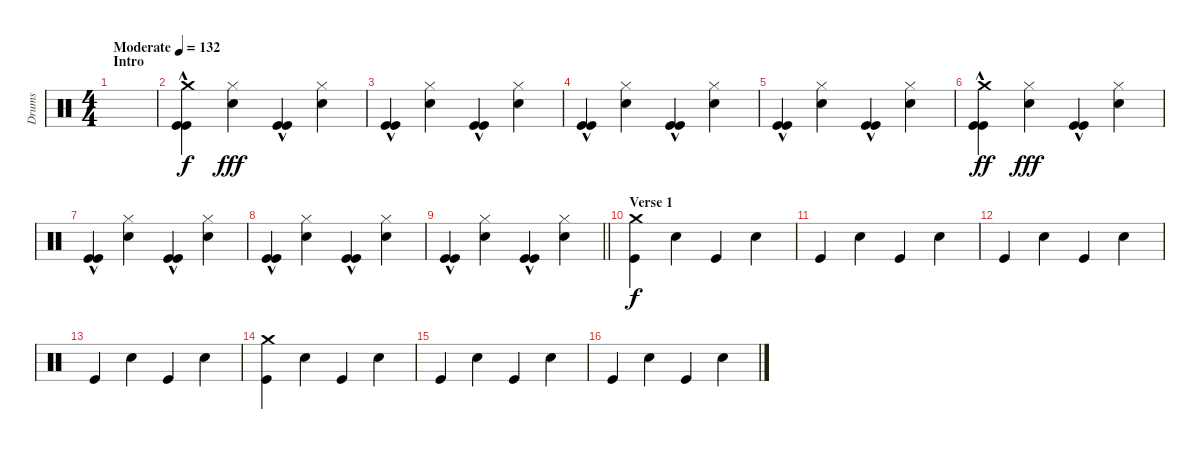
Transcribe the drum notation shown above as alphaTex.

\track ("Drums" "Drums") {instrument percussion}
\staff {score}
\articulation defaults
\ts (4 4)
\section ("" "Intro")
\tempo (132 "Moderate")
\clef neutral
\ks c
|
("Kick (hit)"{hac} "Kick (hit)" "Crash medium (hit)").4 ("Hi-Hat (closed)" "Snare (hit) 2").4{dy fff} ("Kick (hit)"{hac} "Kick (hit)").4 ("Hi-Hat (closed)" "Snare (hit) 2").4 |
("Kick (hit)"{hac} "Kick (hit)").4 ("Hi-Hat (closed)" "Snare (hit) 2").4 ("Kick (hit)"{hac} "Kick (hit)").4 ("Hi-Hat (closed)" "Snare (hit) 2").4 |
("Kick (hit)"{hac} "Kick (hit)").4 ("Hi-Hat (closed)" "Snare (hit) 2").4 ("Kick (hit)"{hac} "Kick (hit)").4 ("Hi-Hat (closed)" "Snare (hit) 2").4 |
("Kick (hit)"{hac} "Kick (hit)").4 ("Hi-Hat (closed)" "Snare (hit) 2").4 ("Kick (hit)"{hac} "Kick (hit)").4 ("Hi-Hat (closed)" "Snare (hit) 2").4 |
("Kick (hit)"{hac} "Kick (hit)" "Crash medium (hit)").4{dy ff} ("Hi-Hat (closed)" "Snare (hit) 2").4{dy fff} ("Kick (hit)"{hac} "Kick (hit)").4 ("Hi-Hat (closed)" "Snare (hit) 2").4 |
("Kick (hit)"{hac} "Kick (hit)").4 ("Hi-Hat (closed)" "Snare (hit) 2").4 ("Kick (hit)"{hac} "Kick (hit)").4 ("Hi-Hat (closed)" "Snare (hit) 2").4 |
("Kick (hit)"{hac} "Kick (hit)").4 ("Hi-Hat (closed)" "Snare (hit) 2").4 ("Kick (hit)"{hac} "Kick (hit)").4 ("Hi-Hat (closed)" "Snare (hit) 2").4 |
\barLineRight lightlight
("Kick (hit)"{hac} "Kick (hit)").4 ("Hi-Hat (closed)" "Snare (hit) 2").4 ("Kick (hit)"{hac} "Kick (hit)").4 ("Hi-Hat (closed)" "Snare (hit) 2").4 |
\section ("" "Verse 1")
("Kick (hit)" "Crash medium (hit)").4{dy f} "Snare (hit) 2".4 "Kick (hit)".4 "Snare (hit) 2".4 |
"Kick (hit)".4 "Snare (hit) 2".4 "Kick (hit)".4 "Snare (hit) 2".4 |
"Kick (hit)".4 "Snare (hit) 2".4 "Kick (hit)".4 "Snare (hit) 2".4 |
"Kick (hit)".4 "Snare (hit) 2".4 "Kick (hit)".4 "Snare (hit) 2".4 |
("Kick (hit)" "Crash medium (hit)").4 "Snare (hit) 2".4 "Kick (hit)".4 "Snare (hit) 2".4 |
"Kick (hit)".4 "Snare (hit) 2".4 "Kick (hit)".4 "Snare (hit) 2".4 |
"Kick (hit)".4 "Snare (hit) 2".4 "Kick (hit)".4 "Snare (hit) 2".4
